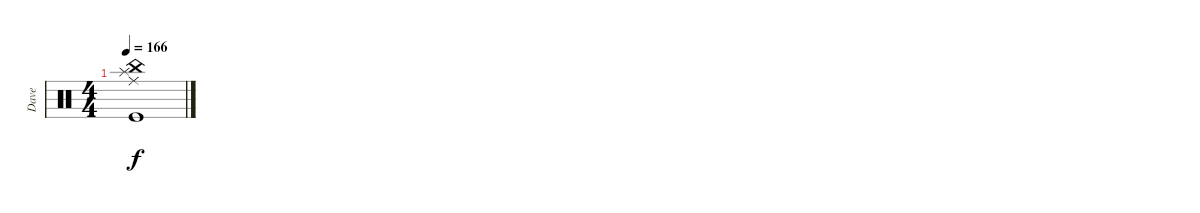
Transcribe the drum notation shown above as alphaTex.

\track ("Dave" "Dave") {instrument percussion}
\staff {score}
\articulation defaults
\ts (4 4)
\tempo 166
\clef neutral
\ks c
("Ride (middle)" "China (hit)" "Splash (hit)" "Kick (hit)").1{dy f}
